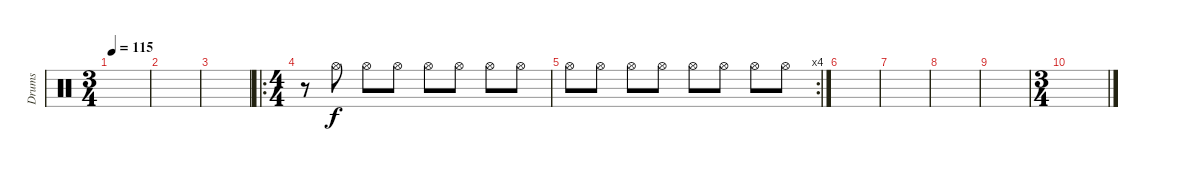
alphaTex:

\track ("Drums" "Drums") {instrument percussion}
\staff {score}
\articulation defaults
\ts (3 4)
\tempo 115
\clef neutral
\ks c
|
|
|
\ro
\ts (4 4)
r.8 "Hi-Hat (open)".8 "Hi-Hat (open)".8 "Hi-Hat (open)".8 "Hi-Hat (open)".8 "Hi-Hat (open)".8 "Hi-Hat (open)".8 "Hi-Hat (open)".8 |
\rc 4 "Hi-Hat (open)".8 "Hi-Hat (open)".8 "Hi-Hat (open)".8 "Hi-Hat (open)".8 "Hi-Hat (open)".8 "Hi-Hat (open)".8 "Hi-Hat (open)".8 "Hi-Hat (open)".8
|
|
|
|
|
\ts (3 4)
